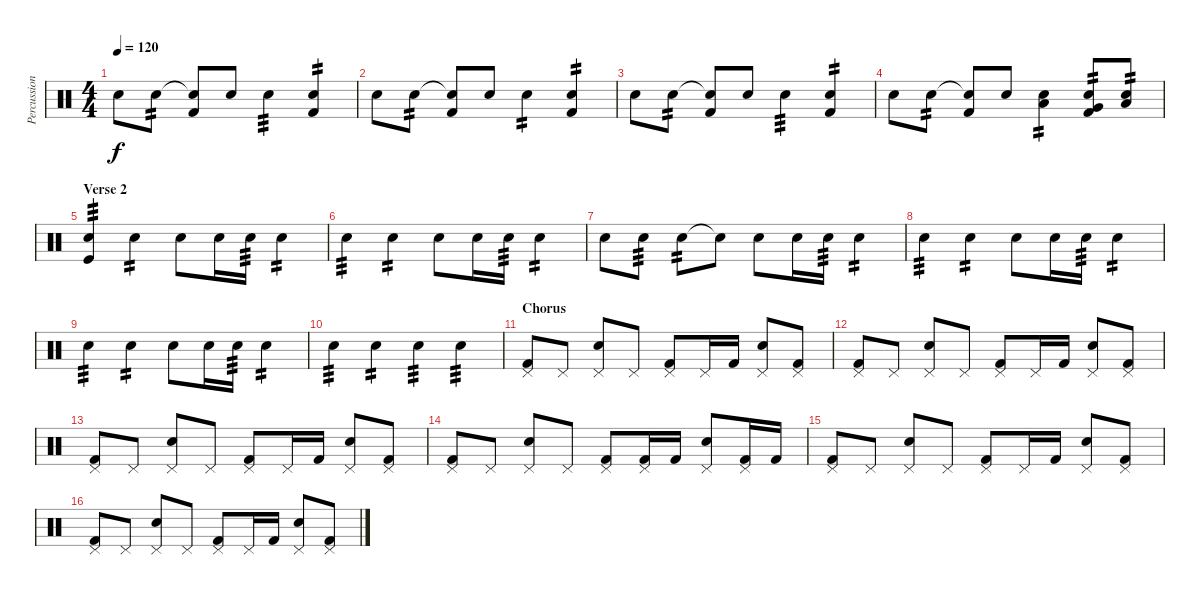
\track ("Percussion" "Percussion") {instrument percussion}
\staff {score}
\articulation defaults
\ts (4 4)
\tempo 120
\clef neutral
\ks c "Electric Snare (hit)".8{dy f} "Electric Snare (hit)".8{tp 2}
("Snare (hit)"{t} "Kick (hit) 2").8 "Electric Snare (hit)".8{volume 6} "Electric Snare (hit)".4{tp 3 volume 11} ("Electric Snare (hit)" "Kick (hit) 2").4{tp 2} |
"Electric Snare (hit)".8 "Electric Snare (hit)".8{tp 2} ("Snare (hit)"{t} "Kick (hit) 2").8 "Electric Snare (hit)".8{volume 6} "Electric Snare (hit)".4{tp 2 volume 11} ("Electric Snare (hit)" "Kick (hit) 2").4{tp 2} |
"Electric Snare (hit)".8 "Electric Snare (hit)".8{tp 2} ("Snare (hit)"{t} "Kick (hit) 2").8 "Electric Snare (hit)".8{volume 6} "Electric Snare (hit)".4{tp 3 volume 11} ("Electric Snare (hit)" "Kick (hit) 2").4{tp 2} |
"Electric Snare (hit)".8 "Electric Snare (hit)".8{tp 2} ("Snare (hit)"{t} "Kick (hit) 2").8 "Electric Snare (hit)".8{volume 6} ("Electric Snare (hit)" "Low Tom (hit)").4{tp 2 volume 11} ("Electric Snare (hit)" "Very Low Tom (hit)" "Kick (hit) 2").8{tp 2} ("Electric Snare (hit)" "Low Floor Tom (hit)").8{tp 2} |
\section ("" "Verse 2")
("Electric Snare (hit)" "Kick (hit)").4{tp 3 volume 11} "Electric Snare (hit)".4{tp 2} "Electric Snare (hit)".8 "Electric Snare (hit)".16 "Electric Snare (hit)".16{tp 3} "Electric Snare (hit)".4{tp 2 volume 8} |
"Electric Snare (hit)".4{tp 3 volume 11} "Electric Snare (hit)".4{tp 2} "Electric Snare (hit)".8 "Electric Snare (hit)".16 "Electric Snare (hit)".16{tp 3} "Electric Snare (hit)".4{tp 2 volume 5} |
"Electric Snare (hit)".8 "Electric Snare (hit)".8{tp 3 volume 11} "Electric Snare (hit)".8{tp 2} "Snare (hit)"{t}.8 "Electric Snare (hit)".8 "Electric Snare (hit)".16 "Electric Snare (hit)".16{tp 3} "Electric Snare (hit)".4{tp 2 volume 5} |
"Electric Snare (hit)".4{tp 3 volume 11} "Electric Snare (hit)".4{tp 2} "Electric Snare (hit)".8 "Electric Snare (hit)".16 "Electric Snare (hit)".16{tp 3} "Electric Snare (hit)".4{tp 2 volume 5} |
"Electric Snare (hit)".4{tp 3 volume 11} "Electric Snare (hit)".4{tp 2} "Electric Snare (hit)".8 "Electric Snare (hit)".16 "Electric Snare (hit)".16{tp 3} "Electric Snare (hit)".4{tp 2 volume 5} |
"Electric Snare (hit)".4{tp 3 volume 11} "Electric Snare (hit)".4{tp 2} "Electric Snare (hit)".4{tp 3 volume 5} "Electric Snare (hit)".4{tp 3 volume 11} |
\section ("" "Chorus")
("Kick (hit) 2" "Pedal Hi-Hat (hit)").8 "Pedal Hi-Hat (hit)".8 ("Electric Snare (hit)" "Pedal Hi-Hat (hit)").8 "Pedal Hi-Hat (hit)".8 ("Kick (hit) 2" "Pedal Hi-Hat (hit)").8 "Pedal Hi-Hat (hit)".16 "Kick (hit) 2".16 ("Electric Snare (hit)" "Pedal Hi-Hat (hit)").8 ("Kick (hit) 2" "Pedal Hi-Hat (hit)").8 |
("Kick (hit) 2" "Pedal Hi-Hat (hit)").8 "Pedal Hi-Hat (hit)".8 ("Electric Snare (hit)" "Pedal Hi-Hat (hit)").8 "Pedal Hi-Hat (hit)".8 ("Kick (hit) 2" "Pedal Hi-Hat (hit)").8 "Pedal Hi-Hat (hit)".16 "Kick (hit) 2".16 ("Electric Snare (hit)" "Pedal Hi-Hat (hit)").8 ("Kick (hit) 2" "Pedal Hi-Hat (hit)").8 |
("Kick (hit) 2" "Pedal Hi-Hat (hit)").8 "Pedal Hi-Hat (hit)".8 ("Electric Snare (hit)" "Pedal Hi-Hat (hit)").8 "Pedal Hi-Hat (hit)".8 ("Kick (hit) 2" "Pedal Hi-Hat (hit)").8 "Pedal Hi-Hat (hit)".16 "Kick (hit) 2".16 ("Electric Snare (hit)" "Pedal Hi-Hat (hit)").8 ("Kick (hit) 2" "Pedal Hi-Hat (hit)").8 |
("Kick (hit) 2" "Pedal Hi-Hat (hit)").8 "Pedal Hi-Hat (hit)".8 ("Electric Snare (hit)" "Pedal Hi-Hat (hit)").8 "Pedal Hi-Hat (hit)".8 ("Kick (hit) 2" "Pedal Hi-Hat (hit)").8 ("Kick (hit) 2" "Pedal Hi-Hat (hit)").16 "Kick (hit) 2".16 ("Electric Snare (hit)" "Pedal Hi-Hat (hit)").8 ("Kick (hit) 2" "Pedal Hi-Hat (hit)").16 "Kick (hit) 2".16 |
("Kick (hit) 2" "Pedal Hi-Hat (hit)").8 "Pedal Hi-Hat (hit)".8 ("Electric Snare (hit)" "Pedal Hi-Hat (hit)").8 "Pedal Hi-Hat (hit)".8 ("Kick (hit) 2" "Pedal Hi-Hat (hit)").8 "Pedal Hi-Hat (hit)".16 "Kick (hit) 2".16 ("Electric Snare (hit)" "Pedal Hi-Hat (hit)").8 ("Kick (hit) 2" "Pedal Hi-Hat (hit)").8 |
("Kick (hit) 2" "Pedal Hi-Hat (hit)").8 "Pedal Hi-Hat (hit)".8 ("Electric Snare (hit)" "Pedal Hi-Hat (hit)").8 "Pedal Hi-Hat (hit)".8 ("Kick (hit) 2" "Pedal Hi-Hat (hit)").8 "Pedal Hi-Hat (hit)".16 "Kick (hit) 2".16 ("Electric Snare (hit)" "Pedal Hi-Hat (hit)").8 ("Kick (hit) 2" "Pedal Hi-Hat (hit)").8
